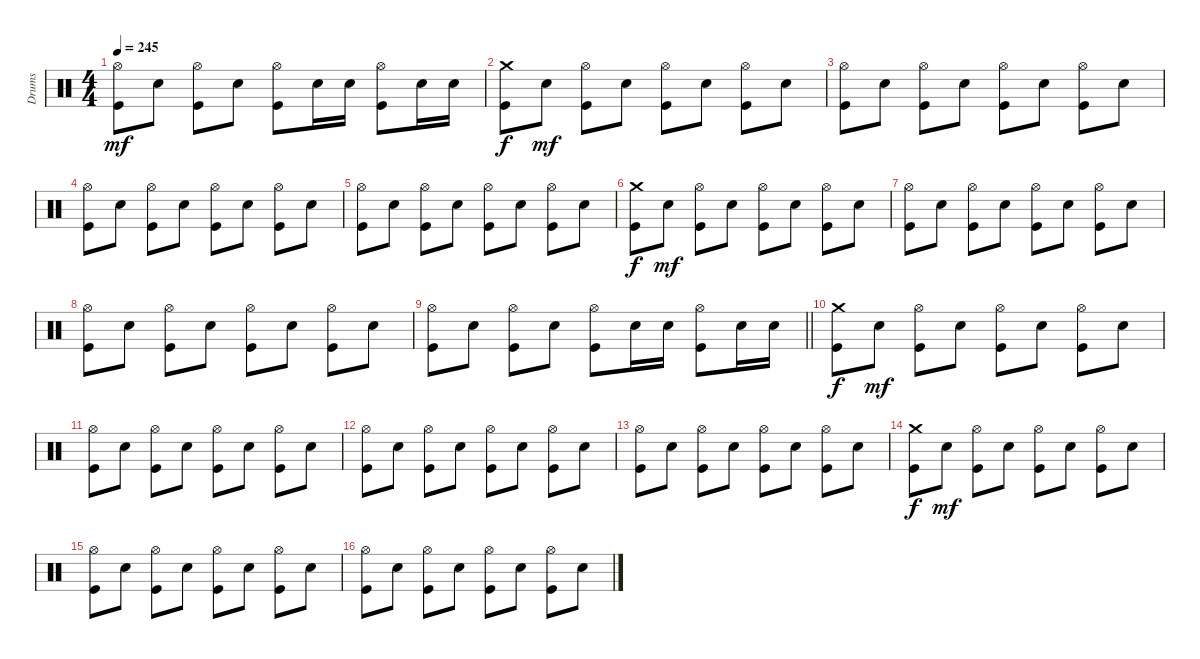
\track ("Drums" "Drums") {instrument percussion}
\staff {score}
\articulation defaults
\ts (4 4)
\tempo 245
\clef neutral
\ks c
("Hi-Hat (open)" "Kick (hit)").8{dy mf} "Snare (hit) 2".8 ("Hi-Hat (open)" "Kick (hit)").8 "Snare (hit) 2".8 ("Hi-Hat (open)" "Kick (hit)").8 "Snare (hit) 2".16 "Snare (hit) 2".16 ("Hi-Hat (open)" "Kick (hit)").8 "Snare (hit) 2".16 "Snare (hit) 2".16 |
("Crash medium (hit)" "Kick (hit)").8{dy f} "Snare (hit) 2".8{dy mf} ("Hi-Hat (open)" "Kick (hit)").8 "Snare (hit) 2".8 ("Hi-Hat (open)" "Kick (hit)").8 "Snare (hit) 2".8 ("Hi-Hat (open)" "Kick (hit)").8 "Snare (hit) 2".8 |
("Hi-Hat (open)" "Kick (hit)").8 "Snare (hit) 2".8 ("Hi-Hat (open)" "Kick (hit)").8 "Snare (hit) 2".8 ("Hi-Hat (open)" "Kick (hit)").8 "Snare (hit) 2".8 ("Hi-Hat (open)" "Kick (hit)").8 "Snare (hit) 2".8 |
("Hi-Hat (open)" "Kick (hit)").8 "Snare (hit) 2".8 ("Hi-Hat (open)" "Kick (hit)").8 "Snare (hit) 2".8 ("Hi-Hat (open)" "Kick (hit)").8 "Snare (hit) 2".8 ("Hi-Hat (open)" "Kick (hit)").8 "Snare (hit) 2".8 |
("Hi-Hat (open)" "Kick (hit)").8 "Snare (hit) 2".8 ("Hi-Hat (open)" "Kick (hit)").8 "Snare (hit) 2".8 ("Hi-Hat (open)" "Kick (hit)").8 "Snare (hit) 2".8 ("Hi-Hat (open)" "Kick (hit)").8 "Snare (hit) 2".8 |
("Crash medium (hit)" "Kick (hit)").8{dy f} "Snare (hit) 2".8{dy mf} ("Hi-Hat (open)" "Kick (hit)").8 "Snare (hit) 2".8 ("Hi-Hat (open)" "Kick (hit)").8 "Snare (hit) 2".8 ("Hi-Hat (open)" "Kick (hit)").8 "Snare (hit) 2".8 |
("Hi-Hat (open)" "Kick (hit)").8 "Snare (hit) 2".8 ("Hi-Hat (open)" "Kick (hit)").8 "Snare (hit) 2".8 ("Hi-Hat (open)" "Kick (hit)").8 "Snare (hit) 2".8 ("Hi-Hat (open)" "Kick (hit)").8 "Snare (hit) 2".8 |
("Hi-Hat (open)" "Kick (hit)").8 "Snare (hit) 2".8 ("Hi-Hat (open)" "Kick (hit)").8 "Snare (hit) 2".8 ("Hi-Hat (open)" "Kick (hit)").8 "Snare (hit) 2".8 ("Hi-Hat (open)" "Kick (hit)").8 "Snare (hit) 2".8 |
\barLineRight lightlight
("Hi-Hat (open)" "Kick (hit)").8 "Snare (hit) 2".8 ("Hi-Hat (open)" "Kick (hit)").8 "Snare (hit) 2".8 ("Hi-Hat (open)" "Kick (hit)").8 "Snare (hit) 2".16 "Snare (hit) 2".16 ("Hi-Hat (open)" "Kick (hit)").8 "Snare (hit) 2".16 "Snare (hit) 2".16 |
("Crash medium (hit)" "Kick (hit)").8{dy f} "Snare (hit) 2".8{dy mf} ("Hi-Hat (open)" "Kick (hit)").8 "Snare (hit) 2".8 ("Hi-Hat (open)" "Kick (hit)").8 "Snare (hit) 2".8 ("Hi-Hat (open)" "Kick (hit)").8 "Snare (hit) 2".8 |
("Hi-Hat (open)" "Kick (hit)").8 "Snare (hit) 2".8 ("Hi-Hat (open)" "Kick (hit)").8 "Snare (hit) 2".8 ("Hi-Hat (open)" "Kick (hit)").8 "Snare (hit) 2".8 ("Hi-Hat (open)" "Kick (hit)").8 "Snare (hit) 2".8 |
("Hi-Hat (open)" "Kick (hit)").8 "Snare (hit) 2".8 ("Hi-Hat (open)" "Kick (hit)").8 "Snare (hit) 2".8 ("Hi-Hat (open)" "Kick (hit)").8 "Snare (hit) 2".8 ("Hi-Hat (open)" "Kick (hit)").8 "Snare (hit) 2".8 |
("Hi-Hat (open)" "Kick (hit)").8 "Snare (hit) 2".8 ("Hi-Hat (open)" "Kick (hit)").8 "Snare (hit) 2".8 ("Hi-Hat (open)" "Kick (hit)").8 "Snare (hit) 2".8 ("Hi-Hat (open)" "Kick (hit)").8 "Snare (hit) 2".8 |
("Crash medium (hit)" "Kick (hit)").8{dy f} "Snare (hit) 2".8{dy mf} ("Hi-Hat (open)" "Kick (hit)").8 "Snare (hit) 2".8 ("Hi-Hat (open)" "Kick (hit)").8 "Snare (hit) 2".8 ("Hi-Hat (open)" "Kick (hit)").8 "Snare (hit) 2".8 |
("Hi-Hat (open)" "Kick (hit)").8 "Snare (hit) 2".8 ("Hi-Hat (open)" "Kick (hit)").8 "Snare (hit) 2".8 ("Hi-Hat (open)" "Kick (hit)").8 "Snare (hit) 2".8 ("Hi-Hat (open)" "Kick (hit)").8 "Snare (hit) 2".8 |
("Hi-Hat (open)" "Kick (hit)").8 "Snare (hit) 2".8 ("Hi-Hat (open)" "Kick (hit)").8 "Snare (hit) 2".8 ("Hi-Hat (open)" "Kick (hit)").8 "Snare (hit) 2".8 ("Hi-Hat (open)" "Kick (hit)").8 "Snare (hit) 2".8
